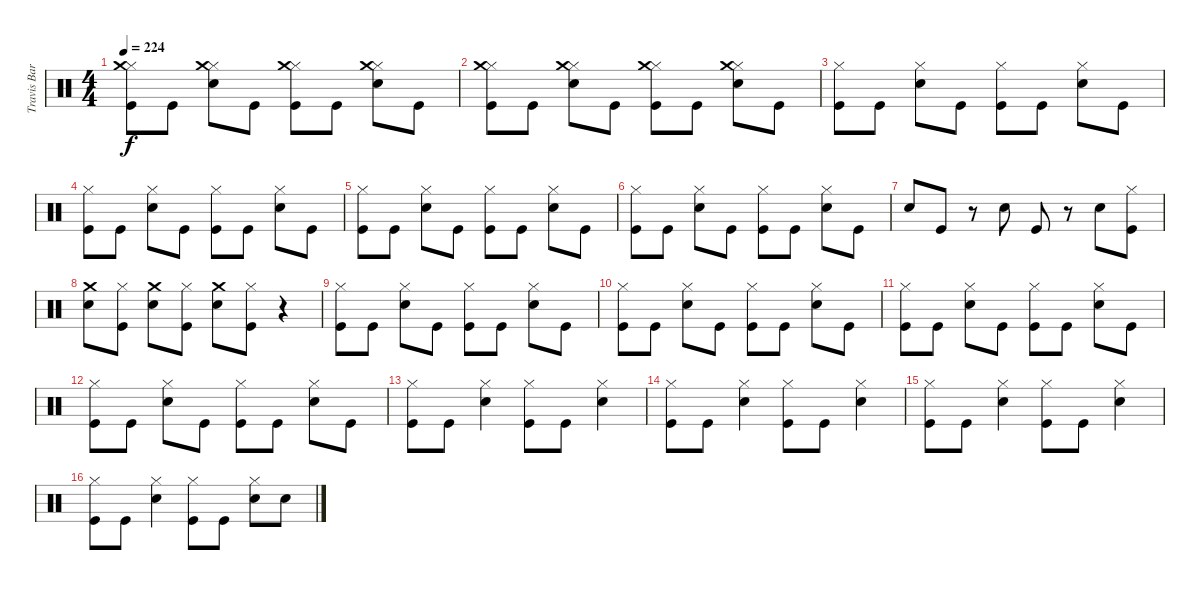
\track ("Travis Barker (Drums)" "Travis Bar") {instrument percussion}
\staff {score}
\articulation defaults
\ts (4 4)
\tempo 224
\clef neutral
\ks c
("Kick (hit)" "Hi-Hat (closed)" "Crash medium (hit)").8{dy f} "Kick (hit)".8 ("Electric Snare (hit)" "Hi-Hat (closed)" "Crash medium (hit)").8 "Kick (hit)".8 ("Kick (hit)" "Hi-Hat (closed)" "Crash medium (hit)").8 "Kick (hit)".8 ("Electric Snare (hit)" "Hi-Hat (closed)" "Crash medium (hit)").8 "Kick (hit)".8 |
("Kick (hit)" "Hi-Hat (closed)" "Crash medium (hit)").8 "Kick (hit)".8 ("Electric Snare (hit)" "Hi-Hat (closed)" "Crash medium (hit)").8 "Kick (hit)".8 ("Kick (hit)" "Hi-Hat (closed)" "Crash medium (hit)").8 "Kick (hit)".8 ("Electric Snare (hit)" "Hi-Hat (closed)" "Crash medium (hit)").8 "Kick (hit)".8 |
("Kick (hit)" "Hi-Hat (closed)").8 "Kick (hit)".8 ("Electric Snare (hit)" "Hi-Hat (closed)").8 "Kick (hit)".8 ("Kick (hit)" "Hi-Hat (closed)").8 "Kick (hit)".8 ("Electric Snare (hit)" "Hi-Hat (closed)").8 "Kick (hit)".8 |
("Kick (hit)" "Hi-Hat (closed)").8 "Kick (hit)".8 ("Electric Snare (hit)" "Hi-Hat (closed)").8 "Kick (hit)".8 ("Kick (hit)" "Hi-Hat (closed)").8 "Kick (hit)".8 ("Electric Snare (hit)" "Hi-Hat (closed)").8 "Kick (hit)".8 |
("Kick (hit)" "Hi-Hat (closed)").8 "Kick (hit)".8 ("Electric Snare (hit)" "Hi-Hat (closed)").8 "Kick (hit)".8 ("Kick (hit)" "Hi-Hat (closed)").8 "Kick (hit)".8 ("Electric Snare (hit)" "Hi-Hat (closed)").8 "Kick (hit)".8 |
("Kick (hit)" "Hi-Hat (closed)").8 "Kick (hit)".8 ("Electric Snare (hit)" "Hi-Hat (closed)").8 "Kick (hit)".8 ("Kick (hit)" "Hi-Hat (closed)").8 "Kick (hit)".8 ("Electric Snare (hit)" "Hi-Hat (closed)").8 "Kick (hit)".8 |
"Electric Snare (hit)".8 "Kick (hit)".8 r.8 "Electric Snare (hit)".8 "Kick (hit)".8 r.8 "Electric Snare (hit)".8 ("Kick (hit)" "Hi-Hat (closed)").8 |
("Electric Snare (hit)" "Crash medium (hit)").8 ("Kick (hit)" "Hi-Hat (closed)").8 ("Electric Snare (hit)" "Crash medium (hit)").8 ("Kick (hit)" "Hi-Hat (closed)").8 ("Electric Snare (hit)" "Crash medium (hit)").8 ("Kick (hit)" "Hi-Hat (closed)").8 r.4 |
("Kick (hit)" "Hi-Hat (closed)").8 "Kick (hit)".8 ("Electric Snare (hit)" "Hi-Hat (closed)").8 "Kick (hit)".8 ("Kick (hit)" "Hi-Hat (closed)").8 "Kick (hit)".8 ("Electric Snare (hit)" "Hi-Hat (closed)").8 "Kick (hit)".8 |
("Kick (hit)" "Hi-Hat (closed)").8 "Kick (hit)".8 ("Electric Snare (hit)" "Hi-Hat (closed)").8 "Kick (hit)".8 ("Kick (hit)" "Hi-Hat (closed)").8 "Kick (hit)".8 ("Electric Snare (hit)" "Hi-Hat (closed)").8 "Kick (hit)".8 |
("Kick (hit)" "Hi-Hat (closed)").8 "Kick (hit)".8 ("Electric Snare (hit)" "Hi-Hat (closed)").8 "Kick (hit)".8 ("Kick (hit)" "Hi-Hat (closed)").8 "Kick (hit)".8 ("Electric Snare (hit)" "Hi-Hat (closed)").8 "Kick (hit)".8 |
("Kick (hit)" "Hi-Hat (closed)").8 "Kick (hit)".8 ("Electric Snare (hit)" "Hi-Hat (closed)").8 "Kick (hit)".8 ("Kick (hit)" "Hi-Hat (closed)").8 "Kick (hit)".8 ("Electric Snare (hit)" "Hi-Hat (closed)").8 "Kick (hit)".8 |
("Kick (hit)" "Hi-Hat (closed)").8 "Kick (hit)".8 ("Electric Snare (hit)" "Hi-Hat (closed)").4 ("Kick (hit)" "Hi-Hat (closed)").8 "Kick (hit)".8 ("Electric Snare (hit)" "Hi-Hat (closed)").4 |
("Kick (hit)" "Hi-Hat (closed)").8 "Kick (hit)".8 ("Electric Snare (hit)" "Hi-Hat (closed)").4 ("Kick (hit)" "Hi-Hat (closed)").8 "Kick (hit)".8 ("Electric Snare (hit)" "Hi-Hat (closed)").4 |
("Kick (hit)" "Hi-Hat (closed)").8 "Kick (hit)".8 ("Electric Snare (hit)" "Hi-Hat (closed)").4 ("Kick (hit)" "Hi-Hat (closed)").8 "Kick (hit)".8 ("Electric Snare (hit)" "Hi-Hat (closed)").4 |
("Kick (hit)" "Hi-Hat (closed)").8 "Kick (hit)".8 ("Electric Snare (hit)" "Hi-Hat (closed)").4 ("Kick (hit)" "Hi-Hat (closed)").8 "Kick (hit)".8 ("Electric Snare (hit)" "Hi-Hat (closed)").8 "Electric Snare (hit)".8
